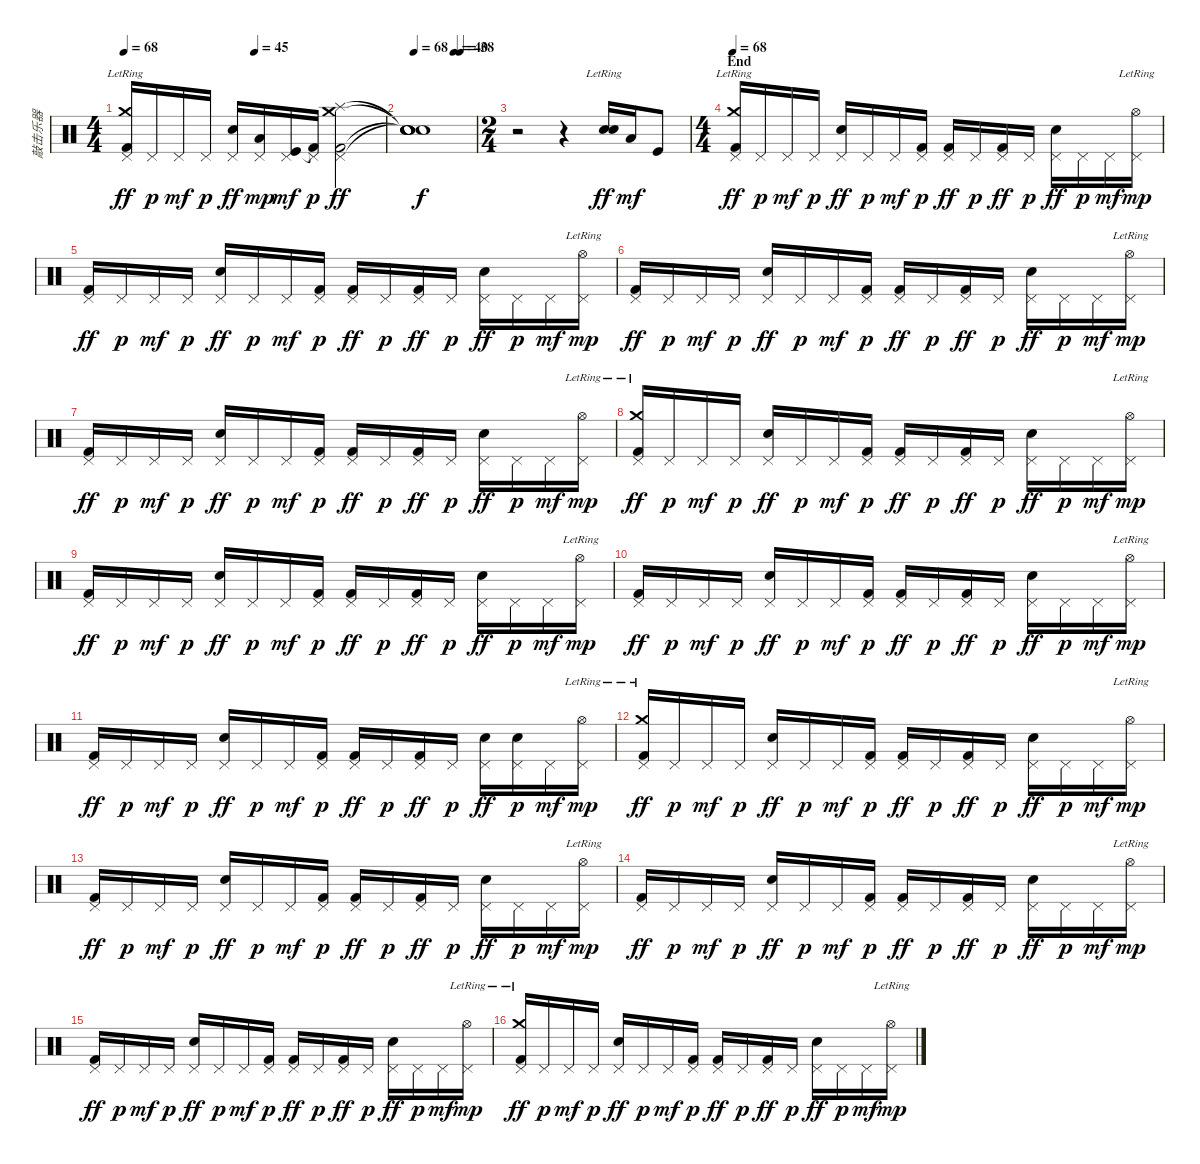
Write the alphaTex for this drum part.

\track ("敲击乐器" "敲击乐器") {instrument percussion}
\staff {score}
\articulation defaults
\ts (4 4)
\tempo 68
\tempo (45 0.5)
\clef neutral
\ks c
("Pedal Hi-Hat (hit)" "Crash medium (hit)"{lr} "Kick (hit) 2").16{dy ff} "Pedal Hi-Hat (hit)".16{dy p} "Pedal Hi-Hat (hit)".16{dy mf} "Pedal Hi-Hat (hit)".16{dy p} ("Pedal Hi-Hat (hit)" "Electric Snare (hit)").16{dy ff} ("Pedal Hi-Hat (hit)" "Low Floor Tom (hit)").16{dy mp} ("Pedal Hi-Hat (hit)" "Kick (hit)").16{dy mf} ("Pedal Hi-Hat (hit)" "Kick (hit) 2"{t}).16{dy p} ("Pedal Hi-Hat (hit)" "Crash medium (hit)" "Splash (hit)" "Kick (hit) 2").2{dy ff} |
\tempo 68
\tempo (40 0.65)
\tempo (38 0.75)
("Snare (hit)"{t} "Snare (hit)"{t} "Snare (hit)"{t} "Snare (hit)"{t}).1{dy f} |
\ts (2 4)
r.2 r.4 ("Electric Snare (hit)"{lr} "Electric Snare (hit)").16{bd 60 dy ff} "Low Floor Tom (hit)".16{dy mf} "Kick (hit)".8 |
\ts (4 4)
\section ("" "End")
\tempo 68
("Pedal Hi-Hat (hit)" "Crash medium (hit)"{lr} "Kick (hit) 2").16{dy ff} "Pedal Hi-Hat (hit)".16{dy p} "Pedal Hi-Hat (hit)".16{dy mf} "Pedal Hi-Hat (hit)".16{dy p} ("Pedal Hi-Hat (hit)" "Electric Snare (hit)").16{dy ff} "Pedal Hi-Hat (hit)".16{dy p} "Pedal Hi-Hat (hit)".16{dy mf} ("Pedal Hi-Hat (hit)" "Kick (hit) 2").16{dy p} ("Pedal Hi-Hat (hit)" "Kick (hit) 2").16{dy ff} "Pedal Hi-Hat (hit)".16{dy p} ("Pedal Hi-Hat (hit)" "Kick (hit) 2").16{dy ff} "Pedal Hi-Hat (hit)".16{dy p} ("Pedal Hi-Hat (hit)" "Electric Snare (hit)").16{dy ff} "Pedal Hi-Hat (hit)".16{dy p} "Pedal Hi-Hat (hit)".16{dy mf} ("Pedal Hi-Hat (hit)" "Hi-Hat (open)"{lr}).16{dy mp} |
("Pedal Hi-Hat (hit)" "Kick (hit) 2").16{dy ff} "Pedal Hi-Hat (hit)".16{dy p} "Pedal Hi-Hat (hit)".16{dy mf} "Pedal Hi-Hat (hit)".16{dy p} ("Pedal Hi-Hat (hit)" "Electric Snare (hit)").16{dy ff} "Pedal Hi-Hat (hit)".16{dy p} "Pedal Hi-Hat (hit)".16{dy mf} ("Pedal Hi-Hat (hit)" "Kick (hit) 2").16{dy p} ("Pedal Hi-Hat (hit)" "Kick (hit) 2").16{dy ff} "Pedal Hi-Hat (hit)".16{dy p} ("Pedal Hi-Hat (hit)" "Kick (hit) 2").16{dy ff} "Pedal Hi-Hat (hit)".16{dy p} ("Pedal Hi-Hat (hit)" "Electric Snare (hit)").16{dy ff} "Pedal Hi-Hat (hit)".16{dy p} "Pedal Hi-Hat (hit)".16{dy mf} ("Pedal Hi-Hat (hit)" "Hi-Hat (open)"{lr}).16{dy mp} |
("Pedal Hi-Hat (hit)" "Kick (hit) 2").16{dy ff} "Pedal Hi-Hat (hit)".16{dy p} "Pedal Hi-Hat (hit)".16{dy mf} "Pedal Hi-Hat (hit)".16{dy p} ("Pedal Hi-Hat (hit)" "Electric Snare (hit)").16{dy ff} "Pedal Hi-Hat (hit)".16{dy p} "Pedal Hi-Hat (hit)".16{dy mf} ("Pedal Hi-Hat (hit)" "Kick (hit) 2").16{dy p} ("Pedal Hi-Hat (hit)" "Kick (hit) 2").16{dy ff} "Pedal Hi-Hat (hit)".16{dy p} ("Pedal Hi-Hat (hit)" "Kick (hit) 2").16{dy ff} "Pedal Hi-Hat (hit)".16{dy p} ("Pedal Hi-Hat (hit)" "Electric Snare (hit)").16{dy ff} "Pedal Hi-Hat (hit)".16{dy p} "Pedal Hi-Hat (hit)".16{dy mf} ("Pedal Hi-Hat (hit)" "Hi-Hat (open)"{lr}).16{dy mp} |
("Pedal Hi-Hat (hit)" "Kick (hit) 2").16{dy ff} "Pedal Hi-Hat (hit)".16{dy p} "Pedal Hi-Hat (hit)".16{dy mf} "Pedal Hi-Hat (hit)".16{dy p} ("Pedal Hi-Hat (hit)" "Electric Snare (hit)").16{dy ff} "Pedal Hi-Hat (hit)".16{dy p} "Pedal Hi-Hat (hit)".16{dy mf} ("Pedal Hi-Hat (hit)" "Kick (hit) 2").16{dy p} ("Pedal Hi-Hat (hit)" "Kick (hit) 2").16{dy ff} "Pedal Hi-Hat (hit)".16{dy p} ("Pedal Hi-Hat (hit)" "Kick (hit) 2").16{dy ff} "Pedal Hi-Hat (hit)".16{dy p} ("Pedal Hi-Hat (hit)" "Electric Snare (hit)").16{dy ff} "Pedal Hi-Hat (hit)".16{dy p} "Pedal Hi-Hat (hit)".16{dy mf} ("Pedal Hi-Hat (hit)" "Hi-Hat (open)"{lr}).16{dy mp} |
("Pedal Hi-Hat (hit)" "Crash medium (hit)"{lr} "Kick (hit) 2").16{dy ff} "Pedal Hi-Hat (hit)".16{dy p} "Pedal Hi-Hat (hit)".16{dy mf} "Pedal Hi-Hat (hit)".16{dy p} ("Pedal Hi-Hat (hit)" "Electric Snare (hit)").16{dy ff} "Pedal Hi-Hat (hit)".16{dy p} "Pedal Hi-Hat (hit)".16{dy mf} ("Pedal Hi-Hat (hit)" "Kick (hit) 2").16{dy p} ("Pedal Hi-Hat (hit)" "Kick (hit) 2").16{dy ff} "Pedal Hi-Hat (hit)".16{dy p} ("Pedal Hi-Hat (hit)" "Kick (hit) 2").16{dy ff} "Pedal Hi-Hat (hit)".16{dy p} ("Pedal Hi-Hat (hit)" "Electric Snare (hit)").16{dy ff} "Pedal Hi-Hat (hit)".16{dy p} "Pedal Hi-Hat (hit)".16{dy mf} ("Pedal Hi-Hat (hit)" "Hi-Hat (open)"{lr}).16{dy mp} |
("Pedal Hi-Hat (hit)" "Kick (hit) 2").16{dy ff} "Pedal Hi-Hat (hit)".16{dy p} "Pedal Hi-Hat (hit)".16{dy mf} "Pedal Hi-Hat (hit)".16{dy p} ("Pedal Hi-Hat (hit)" "Electric Snare (hit)").16{dy ff} "Pedal Hi-Hat (hit)".16{dy p} "Pedal Hi-Hat (hit)".16{dy mf} ("Pedal Hi-Hat (hit)" "Kick (hit) 2").16{dy p} ("Pedal Hi-Hat (hit)" "Kick (hit) 2").16{dy ff} "Pedal Hi-Hat (hit)".16{dy p} ("Pedal Hi-Hat (hit)" "Kick (hit) 2").16{dy ff} "Pedal Hi-Hat (hit)".16{dy p} ("Pedal Hi-Hat (hit)" "Electric Snare (hit)").16{dy ff} "Pedal Hi-Hat (hit)".16{dy p} "Pedal Hi-Hat (hit)".16{dy mf} ("Pedal Hi-Hat (hit)" "Hi-Hat (open)"{lr}).16{dy mp} |
("Pedal Hi-Hat (hit)" "Kick (hit) 2").16{dy ff} "Pedal Hi-Hat (hit)".16{dy p} "Pedal Hi-Hat (hit)".16{dy mf} "Pedal Hi-Hat (hit)".16{dy p} ("Pedal Hi-Hat (hit)" "Electric Snare (hit)").16{dy ff} "Pedal Hi-Hat (hit)".16{dy p} "Pedal Hi-Hat (hit)".16{dy mf} ("Pedal Hi-Hat (hit)" "Kick (hit) 2").16{dy p} ("Pedal Hi-Hat (hit)" "Kick (hit) 2").16{dy ff} "Pedal Hi-Hat (hit)".16{dy p} ("Pedal Hi-Hat (hit)" "Kick (hit) 2").16{dy ff} "Pedal Hi-Hat (hit)".16{dy p} ("Pedal Hi-Hat (hit)" "Electric Snare (hit)").16{dy ff} "Pedal Hi-Hat (hit)".16{dy p} "Pedal Hi-Hat (hit)".16{dy mf} ("Pedal Hi-Hat (hit)" "Hi-Hat (open)"{lr}).16{dy mp} |
("Pedal Hi-Hat (hit)" "Kick (hit) 2").16{dy ff} "Pedal Hi-Hat (hit)".16{dy p} "Pedal Hi-Hat (hit)".16{dy mf} "Pedal Hi-Hat (hit)".16{dy p} ("Pedal Hi-Hat (hit)" "Electric Snare (hit)").16{dy ff} "Pedal Hi-Hat (hit)".16{dy p} "Pedal Hi-Hat (hit)".16{dy mf} ("Pedal Hi-Hat (hit)" "Kick (hit) 2").16{dy p} ("Pedal Hi-Hat (hit)" "Kick (hit) 2").16{dy ff} "Pedal Hi-Hat (hit)".16{dy p} ("Pedal Hi-Hat (hit)" "Kick (hit) 2").16{dy ff} "Pedal Hi-Hat (hit)".16{dy p} ("Pedal Hi-Hat (hit)" "Electric Snare (hit)").16{dy ff} ("Pedal Hi-Hat (hit)" "Electric Snare (hit)").16{dy p} "Pedal Hi-Hat (hit)".16{dy mf} ("Pedal Hi-Hat (hit)" "Hi-Hat (open)"{lr}).16{dy mp} |
("Pedal Hi-Hat (hit)" "Crash medium (hit)"{lr} "Kick (hit) 2").16{dy ff} "Pedal Hi-Hat (hit)".16{dy p} "Pedal Hi-Hat (hit)".16{dy mf} "Pedal Hi-Hat (hit)".16{dy p} ("Pedal Hi-Hat (hit)" "Electric Snare (hit)").16{dy ff} "Pedal Hi-Hat (hit)".16{dy p} "Pedal Hi-Hat (hit)".16{dy mf} ("Pedal Hi-Hat (hit)" "Kick (hit) 2").16{dy p} ("Pedal Hi-Hat (hit)" "Kick (hit) 2").16{dy ff volume 13} "Pedal Hi-Hat (hit)".16{dy p} ("Pedal Hi-Hat (hit)" "Kick (hit) 2").16{dy ff} "Pedal Hi-Hat (hit)".16{dy p} ("Pedal Hi-Hat (hit)" "Electric Snare (hit)").16{dy ff} "Pedal Hi-Hat (hit)".16{dy p} "Pedal Hi-Hat (hit)".16{dy mf} ("Pedal Hi-Hat (hit)" "Hi-Hat (open)"{lr}).16{dy mp} |
("Pedal Hi-Hat (hit)" "Kick (hit) 2").16{dy ff volume 11} "Pedal Hi-Hat (hit)".16{dy p} "Pedal Hi-Hat (hit)".16{dy mf} "Pedal Hi-Hat (hit)".16{dy p} ("Pedal Hi-Hat (hit)" "Electric Snare (hit)").16{dy ff} "Pedal Hi-Hat (hit)".16{dy p} "Pedal Hi-Hat (hit)".16{dy mf} ("Pedal Hi-Hat (hit)" "Kick (hit) 2").16{dy p} ("Pedal Hi-Hat (hit)" "Kick (hit) 2").16{dy ff volume 9} "Pedal Hi-Hat (hit)".16{dy p} ("Pedal Hi-Hat (hit)" "Kick (hit) 2").16{dy ff} "Pedal Hi-Hat (hit)".16{dy p} ("Pedal Hi-Hat (hit)" "Electric Snare (hit)").16{dy ff} "Pedal Hi-Hat (hit)".16{dy p} "Pedal Hi-Hat (hit)".16{dy mf} ("Pedal Hi-Hat (hit)" "Hi-Hat (open)"{lr}).16{dy mp} |
("Pedal Hi-Hat (hit)" "Kick (hit) 2").16{dy ff volume 7} "Pedal Hi-Hat (hit)".16{dy p} "Pedal Hi-Hat (hit)".16{dy mf} "Pedal Hi-Hat (hit)".16{dy p} ("Pedal Hi-Hat (hit)" "Electric Snare (hit)").16{dy ff} "Pedal Hi-Hat (hit)".16{dy p} "Pedal Hi-Hat (hit)".16{dy mf} ("Pedal Hi-Hat (hit)" "Kick (hit) 2").16{dy p} ("Pedal Hi-Hat (hit)" "Kick (hit) 2").16{dy ff} "Pedal Hi-Hat (hit)".16{dy p} ("Pedal Hi-Hat (hit)" "Kick (hit) 2").16{dy ff} "Pedal Hi-Hat (hit)".16{dy p} ("Pedal Hi-Hat (hit)" "Electric Snare (hit)").16{dy ff} "Pedal Hi-Hat (hit)".16{dy p} "Pedal Hi-Hat (hit)".16{dy mf} ("Pedal Hi-Hat (hit)" "Hi-Hat (open)"{lr}).16{dy mp} |
("Pedal Hi-Hat (hit)" "Kick (hit) 2").16{dy ff volume 3} "Pedal Hi-Hat (hit)".16{dy p} "Pedal Hi-Hat (hit)".16{dy mf} "Pedal Hi-Hat (hit)".16{dy p} ("Pedal Hi-Hat (hit)" "Electric Snare (hit)").16{dy ff} "Pedal Hi-Hat (hit)".16{dy p} "Pedal Hi-Hat (hit)".16{dy mf} ("Pedal Hi-Hat (hit)" "Kick (hit) 2").16{dy p} ("Pedal Hi-Hat (hit)" "Kick (hit) 2").16{dy ff} "Pedal Hi-Hat (hit)".16{dy p} ("Pedal Hi-Hat (hit)" "Kick (hit) 2").16{dy ff} "Pedal Hi-Hat (hit)".16{dy p} ("Pedal Hi-Hat (hit)" "Electric Snare (hit)").16{dy ff} "Pedal Hi-Hat (hit)".16{dy p} "Pedal Hi-Hat (hit)".16{dy mf} ("Pedal Hi-Hat (hit)" "Hi-Hat (open)"{lr}).16{dy mp} |
("Pedal Hi-Hat (hit)" "Crash medium (hit)"{lr} "Kick (hit) 2").16{dy ff volume 2} "Pedal Hi-Hat (hit)".16{dy p} "Pedal Hi-Hat (hit)".16{dy mf} "Pedal Hi-Hat (hit)".16{dy p} ("Pedal Hi-Hat (hit)" "Electric Snare (hit)").16{dy ff} "Pedal Hi-Hat (hit)".16{dy p} "Pedal Hi-Hat (hit)".16{dy mf} ("Pedal Hi-Hat (hit)" "Kick (hit) 2").16{dy p} ("Pedal Hi-Hat (hit)" "Kick (hit) 2").16{dy ff} "Pedal Hi-Hat (hit)".16{dy p} ("Pedal Hi-Hat (hit)" "Kick (hit) 2").16{dy ff} "Pedal Hi-Hat (hit)".16{dy p} ("Pedal Hi-Hat (hit)" "Electric Snare (hit)").16{dy ff} "Pedal Hi-Hat (hit)".16{dy p} "Pedal Hi-Hat (hit)".16{dy mf} ("Pedal Hi-Hat (hit)" "Hi-Hat (open)"{lr}).16{dy mp}
